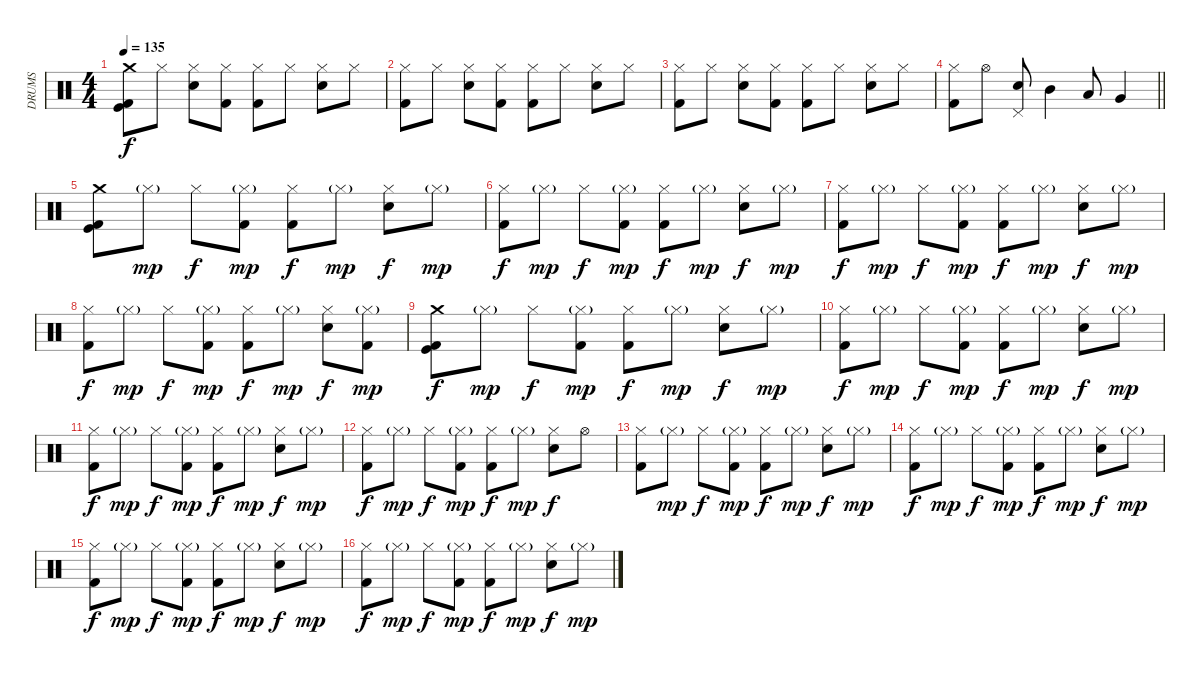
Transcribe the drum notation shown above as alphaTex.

\track ("DRUMS" "DRUMS") {instrument percussion}
\staff {score}
\articulation defaults
\ts (4 4)
\tempo 135
\clef neutral
\ks c
("Crash medium (hit)" "Kick (hit) 2" "Kick (hit)").8{dy f} "Hi-Hat (closed)".8 ("Hi-Hat (closed)" "Electric Snare (hit)").8 ("Hi-Hat (closed)" "Kick (hit) 2").8 ("Hi-Hat (closed)" "Kick (hit) 2").8 "Hi-Hat (closed)".8 ("Hi-Hat (closed)" "Electric Snare (hit)").8 "Hi-Hat (closed)".8 |
("Hi-Hat (closed)" "Kick (hit) 2").8 "Hi-Hat (closed)".8 ("Hi-Hat (closed)" "Electric Snare (hit)").8 ("Hi-Hat (closed)" "Kick (hit) 2").8 ("Hi-Hat (closed)" "Kick (hit) 2").8 "Hi-Hat (closed)".8 ("Hi-Hat (closed)" "Electric Snare (hit)").8 "Hi-Hat (closed)".8 |
("Hi-Hat (closed)" "Kick (hit) 2").8 "Hi-Hat (closed)".8 ("Hi-Hat (closed)" "Electric Snare (hit)").8 ("Hi-Hat (closed)" "Kick (hit) 2").8 ("Hi-Hat (closed)" "Kick (hit) 2").8 "Hi-Hat (closed)".8 ("Hi-Hat (closed)" "Electric Snare (hit)").8 "Hi-Hat (closed)".8 |
\barLineRight lightlight
("Hi-Hat (closed)" "Kick (hit) 2").8 "Hi-Hat (open)".8 ("Pedal Hi-Hat (hit)" "Electric Snare (hit)").8 "Mid Tom (hit)".4 "Low Tom (hit)".8 "Very Low Tom (hit)".4 |
("Crash medium (hit)" "Kick (hit) 2" "Kick (hit)").8 "Hi-Hat (closed)"{g}.8{dy mp} "Hi-Hat (closed)".8{dy f} ("Hi-Hat (closed)"{g} "Kick (hit) 2").8{dy mp} ("Hi-Hat (closed)" "Kick (hit) 2").8{dy f} "Hi-Hat (closed)"{g}.8{dy mp} ("Hi-Hat (closed)" "Electric Snare (hit)").8{dy f} "Hi-Hat (closed)"{g}.8{dy mp} |
("Hi-Hat (closed)" "Kick (hit) 2").8{dy f} "Hi-Hat (closed)"{g}.8{dy mp} "Hi-Hat (closed)".8{dy f} ("Hi-Hat (closed)"{g} "Kick (hit) 2").8{dy mp} ("Hi-Hat (closed)" "Kick (hit) 2").8{dy f} "Hi-Hat (closed)"{g}.8{dy mp} ("Hi-Hat (closed)" "Electric Snare (hit)").8{dy f} "Hi-Hat (closed)"{g}.8{dy mp} |
("Hi-Hat (closed)" "Kick (hit) 2").8{dy f} "Hi-Hat (closed)"{g}.8{dy mp} "Hi-Hat (closed)".8{dy f} ("Hi-Hat (closed)"{g} "Kick (hit) 2").8{dy mp} ("Hi-Hat (closed)" "Kick (hit) 2").8{dy f} "Hi-Hat (closed)"{g}.8{dy mp} ("Hi-Hat (closed)" "Electric Snare (hit)").8{dy f} "Hi-Hat (closed)"{g}.8{dy mp} |
("Hi-Hat (closed)" "Kick (hit) 2").8{dy f} "Hi-Hat (closed)"{g}.8{dy mp} "Hi-Hat (closed)".8{dy f} ("Hi-Hat (closed)"{g} "Kick (hit) 2").8{dy mp} ("Hi-Hat (closed)" "Kick (hit) 2").8{dy f} "Hi-Hat (closed)"{g}.8{dy mp} ("Hi-Hat (closed)" "Electric Snare (hit)").8{dy f} ("Hi-Hat (closed)"{g} "Kick (hit) 2").8{dy mp} |
("Crash medium (hit)" "Kick (hit) 2" "Kick (hit)").8{dy f} "Hi-Hat (closed)"{g}.8{dy mp} "Hi-Hat (closed)".8{dy f} ("Hi-Hat (closed)"{g} "Kick (hit) 2").8{dy mp} ("Hi-Hat (closed)" "Kick (hit) 2").8{dy f} "Hi-Hat (closed)"{g}.8{dy mp} ("Hi-Hat (closed)" "Electric Snare (hit)").8{dy f} "Hi-Hat (closed)"{g}.8{dy mp} |
("Hi-Hat (closed)" "Kick (hit) 2").8{dy f} "Hi-Hat (closed)"{g}.8{dy mp} "Hi-Hat (closed)".8{dy f} ("Hi-Hat (closed)"{g} "Kick (hit) 2").8{dy mp} ("Hi-Hat (closed)" "Kick (hit) 2").8{dy f} "Hi-Hat (closed)"{g}.8{dy mp} ("Hi-Hat (closed)" "Electric Snare (hit)").8{dy f} "Hi-Hat (closed)"{g}.8{dy mp} |
("Hi-Hat (closed)" "Kick (hit) 2").8{dy f} "Hi-Hat (closed)"{g}.8{dy mp} "Hi-Hat (closed)".8{dy f} ("Hi-Hat (closed)"{g} "Kick (hit) 2").8{dy mp} ("Hi-Hat (closed)" "Kick (hit) 2").8{dy f} "Hi-Hat (closed)"{g}.8{dy mp} ("Hi-Hat (closed)" "Electric Snare (hit)").8{dy f} "Hi-Hat (closed)"{g}.8{dy mp} |
("Hi-Hat (closed)" "Kick (hit) 2").8{dy f} "Hi-Hat (closed)"{g}.8{dy mp} "Hi-Hat (closed)".8{dy f} ("Hi-Hat (closed)"{g} "Kick (hit) 2").8{dy mp} ("Hi-Hat (closed)" "Kick (hit) 2").8{dy f} "Hi-Hat (closed)"{g}.8{dy mp} ("Hi-Hat (closed)" "Electric Snare (hit)").8{dy f} "Hi-Hat (open)".8 |
("Hi-Hat (closed)" "Kick (hit) 2").8 "Hi-Hat (closed)"{g}.8{dy mp} "Hi-Hat (closed)".8{dy f} ("Hi-Hat (closed)"{g} "Kick (hit) 2").8{dy mp} ("Hi-Hat (closed)" "Kick (hit) 2").8{dy f} "Hi-Hat (closed)"{g}.8{dy mp} ("Hi-Hat (closed)" "Electric Snare (hit)").8{dy f} "Hi-Hat (closed)"{g}.8{dy mp} |
("Hi-Hat (closed)" "Kick (hit) 2").8{dy f} "Hi-Hat (closed)"{g}.8{dy mp} "Hi-Hat (closed)".8{dy f} ("Hi-Hat (closed)"{g} "Kick (hit) 2").8{dy mp} ("Hi-Hat (closed)" "Kick (hit) 2").8{dy f} "Hi-Hat (closed)"{g}.8{dy mp} ("Hi-Hat (closed)" "Electric Snare (hit)").8{dy f} "Hi-Hat (closed)"{g}.8{dy mp} |
("Hi-Hat (closed)" "Kick (hit) 2").8{dy f} "Hi-Hat (closed)"{g}.8{dy mp} "Hi-Hat (closed)".8{dy f} ("Hi-Hat (closed)"{g} "Kick (hit) 2").8{dy mp} ("Hi-Hat (closed)" "Kick (hit) 2").8{dy f} "Hi-Hat (closed)"{g}.8{dy mp} ("Hi-Hat (closed)" "Electric Snare (hit)").8{dy f} "Hi-Hat (closed)"{g}.8{dy mp} |
("Hi-Hat (closed)" "Kick (hit) 2").8{dy f} "Hi-Hat (closed)"{g}.8{dy mp} "Hi-Hat (closed)".8{dy f} ("Hi-Hat (closed)"{g} "Kick (hit) 2").8{dy mp} ("Hi-Hat (closed)" "Kick (hit) 2").8{dy f} "Hi-Hat (closed)"{g}.8{dy mp} ("Hi-Hat (closed)" "Electric Snare (hit)").8{dy f} "Hi-Hat (closed)"{g}.8{dy mp}
